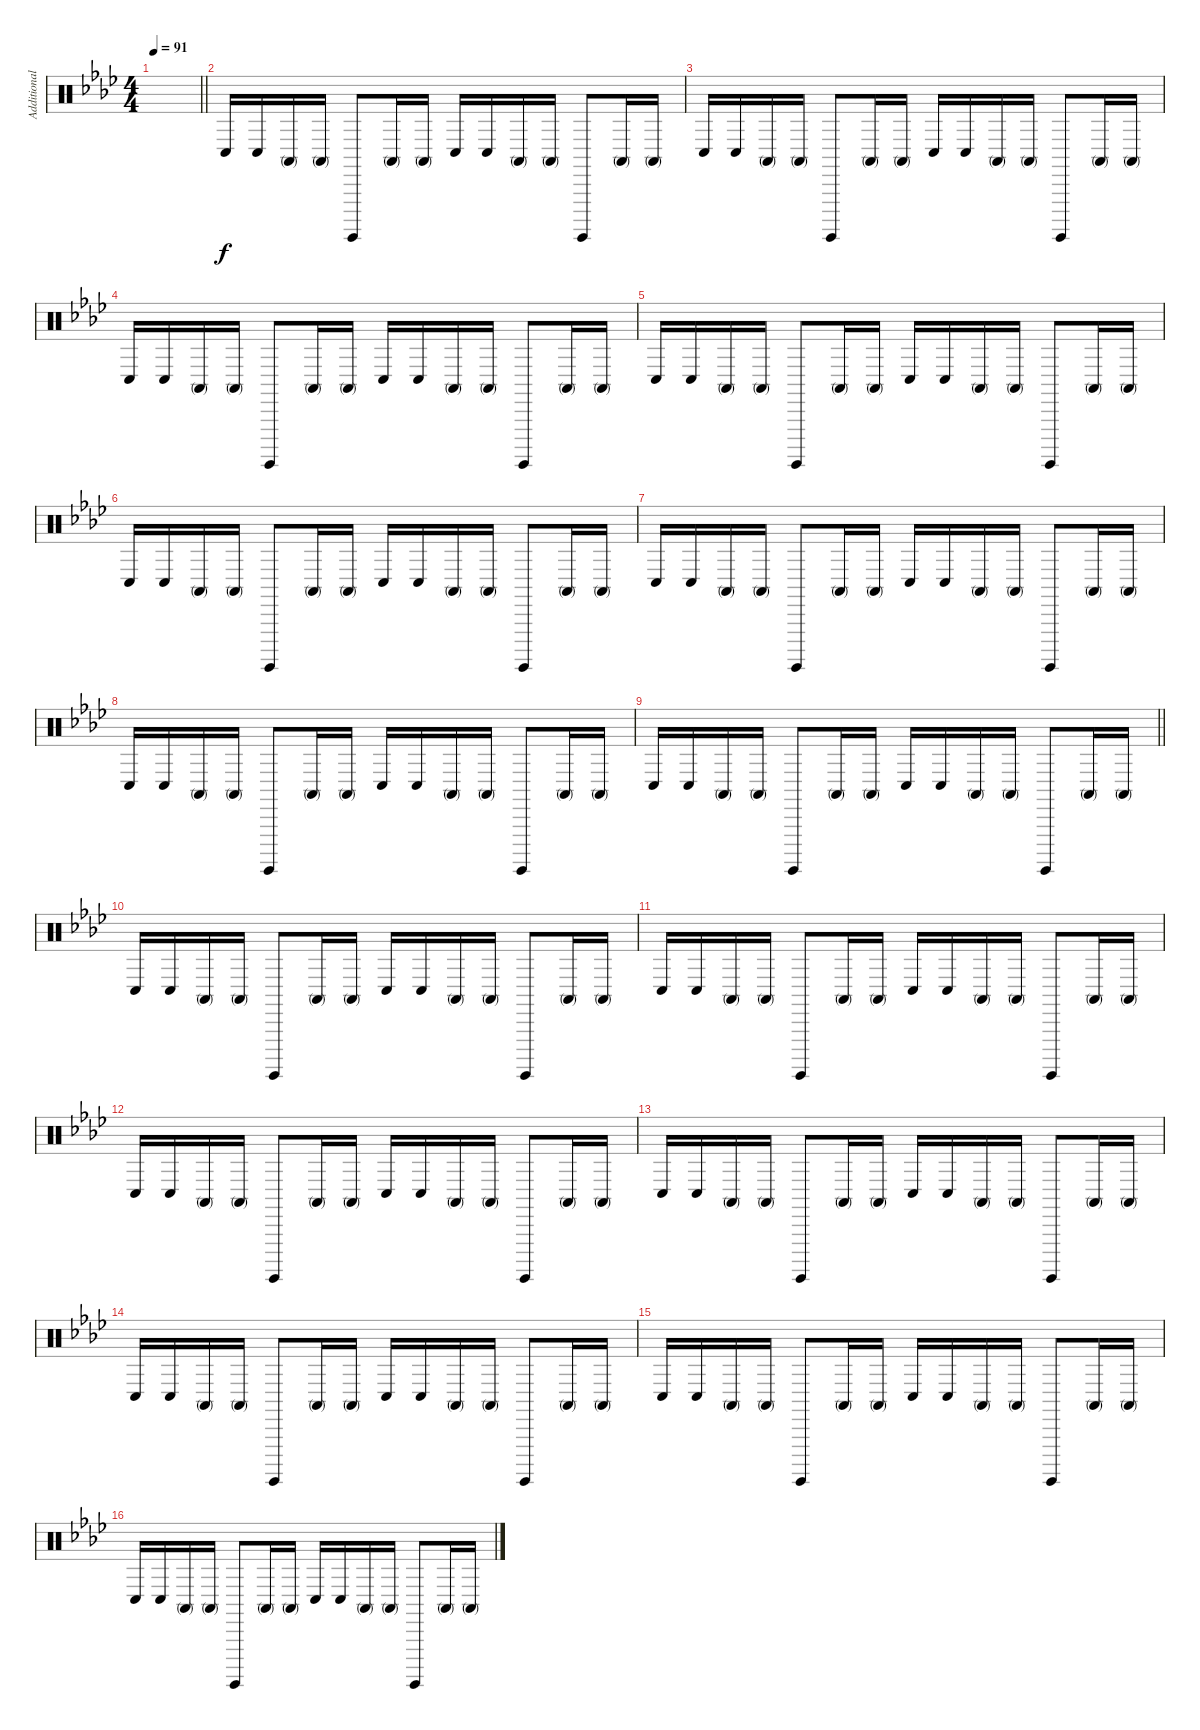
\track ("Additional Percussion" "Additional") {instrument percussion}
\staff {score}
\articulation defaults
\ts (4 4)
\tempo 91
\clef neutral
\barLineRight lightlight
\ks fminor
|
\section ("" " ")
"Conga low (hit)".16 "Conga low (hit)".16 "Conga high (mute)".16 "Conga high (mute)".16 "Surdo (hit)".8 "Conga high (mute)".16 "Conga high (mute)".16 "Conga low (hit)".16 "Conga low (hit)".16 "Conga high (mute)".16 "Conga high (mute)".16 "Surdo (hit)".8 "Conga high (mute)".16 "Conga high (mute)".16 |
"Conga low (hit)".16 "Conga low (hit)".16 "Conga high (mute)".16 "Conga high (mute)".16 "Surdo (hit)".8 "Conga high (mute)".16 "Conga high (mute)".16 "Conga low (hit)".16 "Conga low (hit)".16 "Conga high (mute)".16 "Conga high (mute)".16 "Surdo (hit)".8 "Conga high (mute)".16 "Conga high (mute)".16 |
"Conga low (hit)".16 "Conga low (hit)".16 "Conga high (mute)".16 "Conga high (mute)".16 "Surdo (hit)".8 "Conga high (mute)".16 "Conga high (mute)".16 "Conga low (hit)".16 "Conga low (hit)".16 "Conga high (mute)".16 "Conga high (mute)".16 "Surdo (hit)".8 "Conga high (mute)".16 "Conga high (mute)".16 |
"Conga low (hit)".16 "Conga low (hit)".16 "Conga high (mute)".16 "Conga high (mute)".16 "Surdo (hit)".8 "Conga high (mute)".16 "Conga high (mute)".16 "Conga low (hit)".16 "Conga low (hit)".16 "Conga high (mute)".16 "Conga high (mute)".16 "Surdo (hit)".8 "Conga high (mute)".16 "Conga high (mute)".16 |
"Conga low (hit)".16 "Conga low (hit)".16 "Conga high (mute)".16 "Conga high (mute)".16 "Surdo (hit)".8 "Conga high (mute)".16 "Conga high (mute)".16 "Conga low (hit)".16 "Conga low (hit)".16 "Conga high (mute)".16 "Conga high (mute)".16 "Surdo (hit)".8 "Conga high (mute)".16 "Conga high (mute)".16 |
"Conga low (hit)".16 "Conga low (hit)".16 "Conga high (mute)".16 "Conga high (mute)".16 "Surdo (hit)".8 "Conga high (mute)".16 "Conga high (mute)".16 "Conga low (hit)".16 "Conga low (hit)".16 "Conga high (mute)".16 "Conga high (mute)".16 "Surdo (hit)".8 "Conga high (mute)".16 "Conga high (mute)".16 |
"Conga low (hit)".16 "Conga low (hit)".16 "Conga high (mute)".16 "Conga high (mute)".16 "Surdo (hit)".8 "Conga high (mute)".16 "Conga high (mute)".16 "Conga low (hit)".16 "Conga low (hit)".16 "Conga high (mute)".16 "Conga high (mute)".16 "Surdo (hit)".8 "Conga high (mute)".16 "Conga high (mute)".16 |
\barLineRight lightlight "Conga low (hit)".16 "Conga low (hit)".16 "Conga high (mute)".16 "Conga high (mute)".16 "Surdo (hit)".8 "Conga high (mute)".16 "Conga high (mute)".16 "Conga low (hit)".16 "Conga low (hit)".16 "Conga high (mute)".16 "Conga high (mute)".16 "Surdo (hit)".8 "Conga high (mute)".16 "Conga high (mute)".16
|
\section ("" " ")
"Conga low (hit)".16 "Conga low (hit)".16 "Conga high (mute)".16 "Conga high (mute)".16 "Surdo (hit)".8 "Conga high (mute)".16 "Conga high (mute)".16 "Conga low (hit)".16 "Conga low (hit)".16 "Conga high (mute)".16 "Conga high (mute)".16 "Surdo (hit)".8 "Conga high (mute)".16 "Conga high (mute)".16 |
"Conga low (hit)".16 "Conga low (hit)".16 "Conga high (mute)".16 "Conga high (mute)".16 "Surdo (hit)".8 "Conga high (mute)".16 "Conga high (mute)".16 "Conga low (hit)".16 "Conga low (hit)".16 "Conga high (mute)".16 "Conga high (mute)".16 "Surdo (hit)".8 "Conga high (mute)".16 "Conga high (mute)".16 |
"Conga low (hit)".16 "Conga low (hit)".16 "Conga high (mute)".16 "Conga high (mute)".16 "Surdo (hit)".8 "Conga high (mute)".16 "Conga high (mute)".16 "Conga low (hit)".16 "Conga low (hit)".16 "Conga high (mute)".16 "Conga high (mute)".16 "Surdo (hit)".8 "Conga high (mute)".16 "Conga high (mute)".16 |
"Conga low (hit)".16 "Conga low (hit)".16 "Conga high (mute)".16 "Conga high (mute)".16 "Surdo (hit)".8 "Conga high (mute)".16 "Conga high (mute)".16 "Conga low (hit)".16 "Conga low (hit)".16 "Conga high (mute)".16 "Conga high (mute)".16 "Surdo (hit)".8 "Conga high (mute)".16 "Conga high (mute)".16 |
"Conga low (hit)".16 "Conga low (hit)".16 "Conga high (mute)".16 "Conga high (mute)".16 "Surdo (hit)".8 "Conga high (mute)".16 "Conga high (mute)".16 "Conga low (hit)".16 "Conga low (hit)".16 "Conga high (mute)".16 "Conga high (mute)".16 "Surdo (hit)".8 "Conga high (mute)".16 "Conga high (mute)".16 |
"Conga low (hit)".16 "Conga low (hit)".16 "Conga high (mute)".16 "Conga high (mute)".16 "Surdo (hit)".8 "Conga high (mute)".16 "Conga high (mute)".16 "Conga low (hit)".16 "Conga low (hit)".16 "Conga high (mute)".16 "Conga high (mute)".16 "Surdo (hit)".8 "Conga high (mute)".16 "Conga high (mute)".16 |
"Conga low (hit)".16 "Conga low (hit)".16 "Conga high (mute)".16 "Conga high (mute)".16 "Surdo (hit)".8 "Conga high (mute)".16 "Conga high (mute)".16 "Conga low (hit)".16 "Conga low (hit)".16 "Conga high (mute)".16 "Conga high (mute)".16 "Surdo (hit)".8 "Conga high (mute)".16 "Conga high (mute)".16
